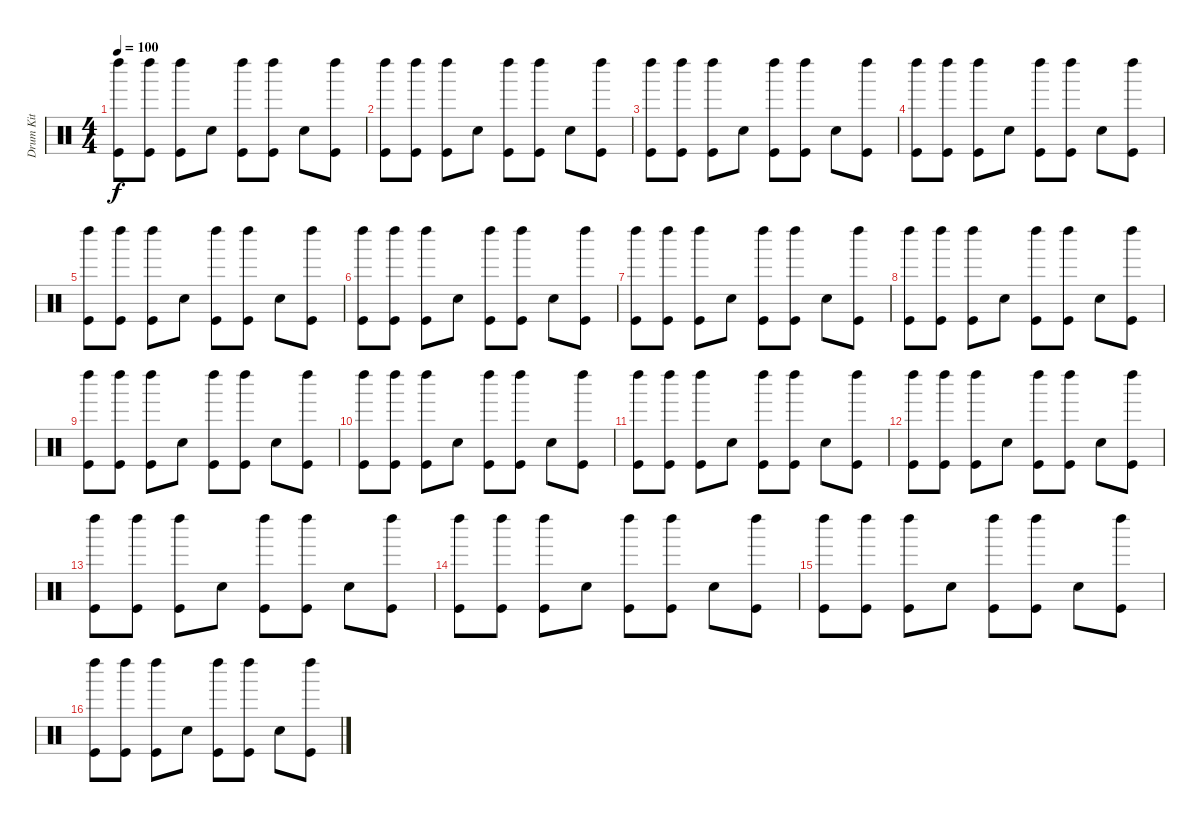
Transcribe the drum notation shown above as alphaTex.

\track ("Drum Kit" "Drum Kit") {instrument percussion}
\staff {score}
\articulation defaults
\ts (4 4)
\tempo 100
\clef neutral
\ks c
("Left Maraca (hit)" "Kick (hit)").8{dy f} ("Left Maraca (hit)" "Kick (hit)").8 ("Left Maraca (hit)" "Kick (hit)").8 "Snare (hit) 2".8 ("Left Maraca (hit)" "Kick (hit)").8 ("Left Maraca (hit)" "Kick (hit)").8 "Snare (hit) 2".8 ("Left Maraca (hit)" "Kick (hit)").8 |
("Left Maraca (hit)" "Kick (hit)").8 ("Left Maraca (hit)" "Kick (hit)").8 ("Left Maraca (hit)" "Kick (hit)").8 "Snare (hit) 2".8 ("Left Maraca (hit)" "Kick (hit)").8 ("Left Maraca (hit)" "Kick (hit)").8 "Snare (hit) 2".8 ("Left Maraca (hit)" "Kick (hit)").8 |
("Left Maraca (hit)" "Kick (hit)").8 ("Left Maraca (hit)" "Kick (hit)").8 ("Left Maraca (hit)" "Kick (hit)").8 "Snare (hit) 2".8 ("Left Maraca (hit)" "Kick (hit)").8 ("Left Maraca (hit)" "Kick (hit)").8 "Snare (hit) 2".8 ("Left Maraca (hit)" "Kick (hit)").8 |
("Left Maraca (hit)" "Kick (hit)").8 ("Left Maraca (hit)" "Kick (hit)").8 ("Left Maraca (hit)" "Kick (hit)").8 "Snare (hit) 2".8 ("Left Maraca (hit)" "Kick (hit)").8 ("Left Maraca (hit)" "Kick (hit)").8 "Snare (hit) 2".8 ("Left Maraca (hit)" "Kick (hit)").8 |
("Left Maraca (hit)" "Kick (hit)").8 ("Left Maraca (hit)" "Kick (hit)").8 ("Left Maraca (hit)" "Kick (hit)").8 "Snare (hit) 2".8 ("Left Maraca (hit)" "Kick (hit)").8 ("Left Maraca (hit)" "Kick (hit)").8 "Snare (hit) 2".8 ("Left Maraca (hit)" "Kick (hit)").8 |
("Left Maraca (hit)" "Kick (hit)").8 ("Left Maraca (hit)" "Kick (hit)").8 ("Left Maraca (hit)" "Kick (hit)").8 "Snare (hit) 2".8 ("Left Maraca (hit)" "Kick (hit)").8 ("Left Maraca (hit)" "Kick (hit)").8 "Snare (hit) 2".8 ("Left Maraca (hit)" "Kick (hit)").8 |
("Left Maraca (hit)" "Kick (hit)").8 ("Left Maraca (hit)" "Kick (hit)").8 ("Left Maraca (hit)" "Kick (hit)").8 "Snare (hit) 2".8 ("Left Maraca (hit)" "Kick (hit)").8 ("Left Maraca (hit)" "Kick (hit)").8 "Snare (hit) 2".8 ("Left Maraca (hit)" "Kick (hit)").8 |
("Left Maraca (hit)" "Kick (hit)").8 ("Left Maraca (hit)" "Kick (hit)").8 ("Left Maraca (hit)" "Kick (hit)").8 "Snare (hit) 2".8 ("Left Maraca (hit)" "Kick (hit)").8 ("Left Maraca (hit)" "Kick (hit)").8 "Snare (hit) 2".8 ("Left Maraca (hit)" "Kick (hit)").8 |
("Left Maraca (hit)" "Kick (hit)").8 ("Left Maraca (hit)" "Kick (hit)").8 ("Left Maraca (hit)" "Kick (hit)").8 "Snare (hit) 2".8 ("Left Maraca (hit)" "Kick (hit)").8 ("Left Maraca (hit)" "Kick (hit)").8 "Snare (hit) 2".8 ("Left Maraca (hit)" "Kick (hit)").8 |
("Left Maraca (hit)" "Kick (hit)").8 ("Left Maraca (hit)" "Kick (hit)").8 ("Left Maraca (hit)" "Kick (hit)").8 "Snare (hit) 2".8 ("Left Maraca (hit)" "Kick (hit)").8 ("Left Maraca (hit)" "Kick (hit)").8 "Snare (hit) 2".8 ("Left Maraca (hit)" "Kick (hit)").8 |
("Left Maraca (hit)" "Kick (hit)").8 ("Left Maraca (hit)" "Kick (hit)").8 ("Left Maraca (hit)" "Kick (hit)").8 "Snare (hit) 2".8 ("Left Maraca (hit)" "Kick (hit)").8 ("Left Maraca (hit)" "Kick (hit)").8 "Snare (hit) 2".8 ("Left Maraca (hit)" "Kick (hit)").8 |
("Left Maraca (hit)" "Kick (hit)").8 ("Left Maraca (hit)" "Kick (hit)").8 ("Left Maraca (hit)" "Kick (hit)").8 "Snare (hit) 2".8 ("Left Maraca (hit)" "Kick (hit)").8 ("Left Maraca (hit)" "Kick (hit)").8 "Snare (hit) 2".8 ("Left Maraca (hit)" "Kick (hit)").8 |
("Left Maraca (hit)" "Kick (hit)").8 ("Left Maraca (hit)" "Kick (hit)").8 ("Left Maraca (hit)" "Kick (hit)").8 "Snare (hit) 2".8 ("Left Maraca (hit)" "Kick (hit)").8 ("Left Maraca (hit)" "Kick (hit)").8 "Snare (hit) 2".8 ("Left Maraca (hit)" "Kick (hit)").8 |
("Left Maraca (hit)" "Kick (hit)").8 ("Left Maraca (hit)" "Kick (hit)").8 ("Left Maraca (hit)" "Kick (hit)").8 "Snare (hit) 2".8 ("Left Maraca (hit)" "Kick (hit)").8 ("Left Maraca (hit)" "Kick (hit)").8 "Snare (hit) 2".8 ("Left Maraca (hit)" "Kick (hit)").8 |
("Left Maraca (hit)" "Kick (hit)").8 ("Left Maraca (hit)" "Kick (hit)").8 ("Left Maraca (hit)" "Kick (hit)").8 "Snare (hit) 2".8 ("Left Maraca (hit)" "Kick (hit)").8 ("Left Maraca (hit)" "Kick (hit)").8 "Snare (hit) 2".8 ("Left Maraca (hit)" "Kick (hit)").8 |
("Left Maraca (hit)" "Kick (hit)").8 ("Left Maraca (hit)" "Kick (hit)").8 ("Left Maraca (hit)" "Kick (hit)").8 "Snare (hit) 2".8 ("Left Maraca (hit)" "Kick (hit)").8 ("Left Maraca (hit)" "Kick (hit)").8 "Snare (hit) 2".8 ("Left Maraca (hit)" "Kick (hit)").8
